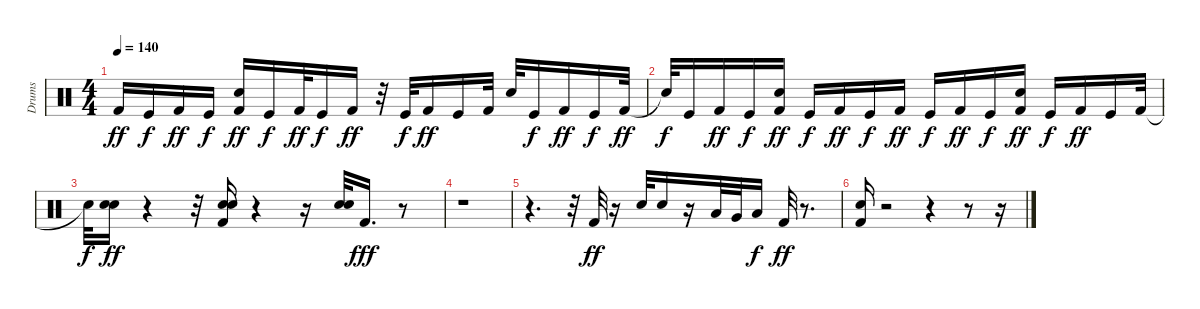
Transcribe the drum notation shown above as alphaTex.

\track ("Drums" "Drums") {instrument percussion}
\staff {score}
\articulation defaults
\ts (4 4)
\tempo 140
\clef neutral
\ks c "Kick (hit) 2".16{dy ff} "Kick (hit)".16{dy f} "Kick (hit) 2".16{dy ff} "Kick (hit)".16{dy f}
("Kick (hit) 2" "Snare (hit) 2").16{dy ff} "Kick (hit)".16{dy f} "Kick (hit) 2".32{dy ff} "Kick (hit)".16{dy f} "Kick (hit) 2".16{dy ff} r.32 "Kick (hit)".32{dy f} "Kick (hit) 2".16{dy ff} "Kick (hit)".16 "Kick (hit) 2".32 "Snare (hit) 2".32 "Kick (hit)".16{dy f} "Kick (hit) 2".16{dy ff} "Kick (hit)".16{dy f} "Kick (hit) 2".32{dy ff} |
"Snare (hit)"{t}.32{dy f} "Kick (hit)".16 "Kick (hit) 2".16{dy ff} "Kick (hit)".16{dy f} ("Kick (hit) 2" "Snare (hit) 2").16{dy ff} "Kick (hit)".16{dy f} "Kick (hit) 2".16{dy ff} "Kick (hit)".16{dy f} "Kick (hit) 2".16{dy ff} "Kick (hit)".16{dy f} "Kick (hit) 2".16{dy ff} "Kick (hit)".16{dy f} ("Kick (hit) 2" "Snare (hit) 2").16{dy ff} "Kick (hit)".16{dy f} "Kick (hit) 2".16{dy ff} "Kick (hit)".16 "Kick (hit) 2".32 |
"Snare (hit)"{t}.32{dy f} ("Electric Snare (hit)" "Snare (hit) 2").16{dy ff} r.4 r.32 ("Kick (hit) 2" "Electric Snare (hit)" "Snare (hit) 2").16 r.4 r.16 ("Electric Snare (hit)" "Snare (hit) 2").32 "Kick (hit) 2".16{d dy fff} r.8 |
r.1 |
r.4{d} r.32 "Kick (hit) 2".32{dy ff} r.16 "Electric Snare (hit)".32 "Snare (hit) 2".16 r.16 "Low Tom (hit)".32 "Very Low Tom (hit)".32 "Low Floor Tom (hit)".16{dy f} "Kick (hit) 2".32{dy ff} r.8{d} |
("Snare (hit) 2" "Kick (hit) 2").16 r.2 r.4 r.8 r.16
